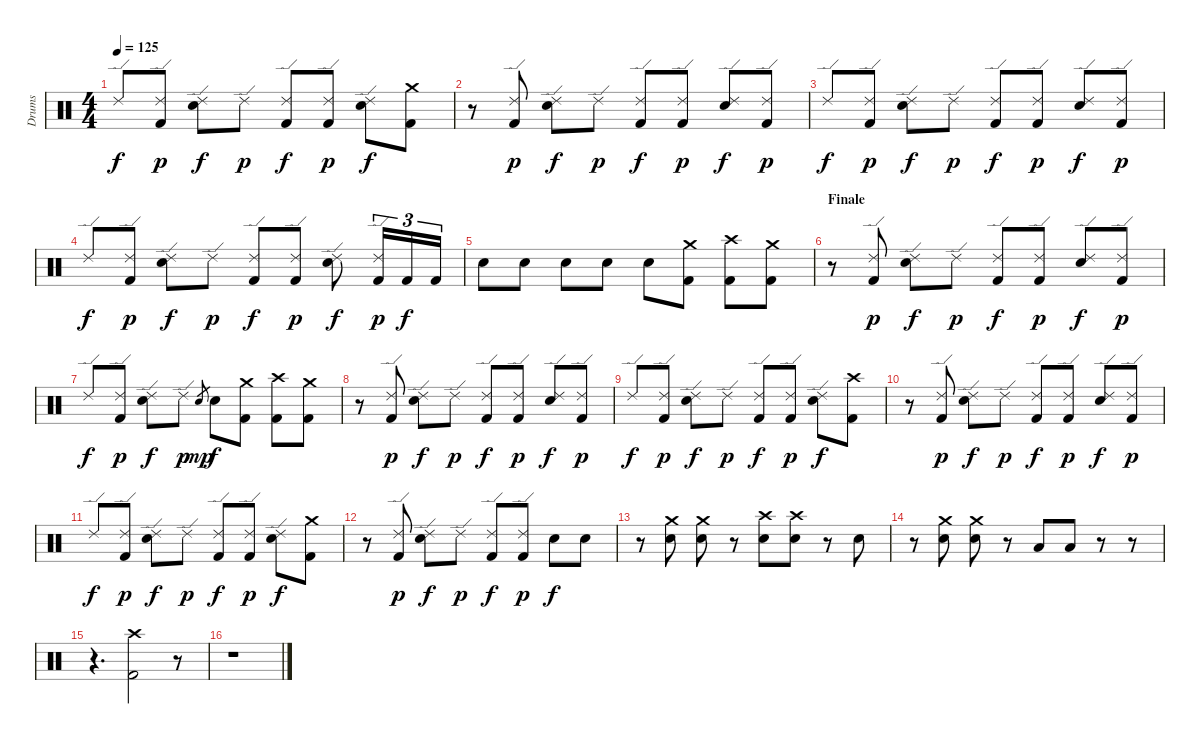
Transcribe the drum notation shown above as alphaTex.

\track ("Drums" "Drums") {instrument percussion}
\staff {score}
\articulation defaults
\ts (4 4)
\tempo 125
\clef neutral
\ks c "Ride (edge) 2".8{dy f}
("Ride (edge) 2" "Kick (hit) 2").8{dy p} ("Ride (edge) 2" "Snare (hit) 2").8{dy f} "Ride (edge) 2".8{dy p} ("Ride (edge) 2" "Kick (hit) 2").8{dy f} ("Ride (edge) 2" "Kick (hit) 2").8{dy p} ("Ride (edge) 2" "Snare (hit) 2").8{dy f} ("Crash medium (hit)" "Kick (hit) 2").8 |
r.8 ("Ride (edge) 2" "Kick (hit) 2").8{dy p} ("Ride (edge) 2" "Snare (hit) 2").8{dy f} "Ride (edge) 2".8{dy p} ("Ride (edge) 2" "Kick (hit) 2").8{dy f} ("Ride (edge) 2" "Kick (hit) 2").8{dy p} ("Ride (edge) 2" "Snare (hit) 2").8{dy f} ("Ride (edge) 2" "Kick (hit) 2").8{dy p} |
"Ride (edge) 2".8{dy f} ("Ride (edge) 2" "Kick (hit) 2").8{dy p} ("Ride (edge) 2" "Snare (hit) 2").8{dy f} "Ride (edge) 2".8{dy p} ("Ride (edge) 2" "Kick (hit) 2").8{dy f} ("Ride (edge) 2" "Kick (hit) 2").8{dy p} ("Ride (edge) 2" "Snare (hit) 2").8{dy f} ("Ride (edge) 2" "Kick (hit) 2").8{dy p} |
"Ride (edge) 2".8{dy f} ("Ride (edge) 2" "Kick (hit) 2").8{dy p} ("Ride (edge) 2" "Snare (hit) 2").8{dy f} "Ride (edge) 2".8{dy p} ("Ride (edge) 2" "Kick (hit) 2").8{dy f} ("Ride (edge) 2" "Kick (hit) 2").8{dy p} ("Ride (edge) 2" "Snare (hit) 2").8{dy f} ("Ride (edge) 2" "Kick (hit) 2").16{tu (3 2) dy p} "Kick (hit) 2".16{tu (3 2) dy f} "Kick (hit) 2".16{tu (3 2)} |
"Snare (hit) 2".8 "Snare (hit) 2".8 "Snare (hit) 2".8 "Snare (hit) 2".8 "Snare (hit) 2".8 ("Crash medium (hit)" "Kick (hit) 2").8 ("Crash high (hit)" "Kick (hit) 2").8 ("Crash medium (hit)" "Kick (hit) 2").8 |
\section ("" "Finale")
r.8 ("Ride (edge) 2" "Kick (hit) 2").8{dy p} ("Ride (edge) 2" "Snare (hit) 2").8{dy f} "Ride (edge) 2".8{dy p} ("Ride (edge) 2" "Kick (hit) 2").8{dy f} ("Ride (edge) 2" "Kick (hit) 2").8{dy p} ("Ride (edge) 2" "Snare (hit) 2").8{dy f} ("Ride (edge) 2" "Kick (hit) 2").8{dy p} |
"Ride (edge) 2".8{dy f} ("Ride (edge) 2" "Kick (hit) 2").8{dy p} ("Ride (edge) 2" "Snare (hit) 2").8{dy f} "Ride (edge) 2".8{dy p} "Snare (hit) 2".8{gr dy mp} "Snare (hit) 2".8{dy f} ("Crash medium (hit)" "Kick (hit) 2").8 ("Crash high (hit)" "Kick (hit) 2").8 ("Crash medium (hit)" "Kick (hit) 2").8 |
r.8 ("Ride (edge) 2" "Kick (hit) 2").8{dy p} ("Ride (edge) 2" "Snare (hit) 2").8{dy f} "Ride (edge) 2".8{dy p} ("Ride (edge) 2" "Kick (hit) 2").8{dy f} ("Ride (edge) 2" "Kick (hit) 2").8{dy p} ("Ride (edge) 2" "Snare (hit) 2").8{dy f} ("Ride (edge) 2" "Kick (hit) 2").8{dy p} |
"Ride (edge) 2".8{dy f} ("Ride (edge) 2" "Kick (hit) 2").8{dy p} ("Ride (edge) 2" "Snare (hit) 2").8{dy f} "Ride (edge) 2".8{dy p} ("Ride (edge) 2" "Kick (hit) 2").8{dy f} ("Ride (edge) 2" "Kick (hit) 2").8{dy p} ("Ride (edge) 2" "Snare (hit) 2").8{dy f} ("Crash high (hit)" "Kick (hit) 2").8 |
r.8 ("Ride (edge) 2" "Kick (hit) 2").8{dy p} ("Ride (edge) 2" "Snare (hit) 2").8{dy f} "Ride (edge) 2".8{dy p} ("Ride (edge) 2" "Kick (hit) 2").8{dy f} ("Ride (edge) 2" "Kick (hit) 2").8{dy p} ("Ride (edge) 2" "Snare (hit) 2").8{dy f} ("Ride (edge) 2" "Kick (hit) 2").8{dy p} |
"Ride (edge) 2".8{dy f} ("Ride (edge) 2" "Kick (hit) 2").8{dy p} ("Ride (edge) 2" "Snare (hit) 2").8{dy f} "Ride (edge) 2".8{dy p} ("Ride (edge) 2" "Kick (hit) 2").8{dy f} ("Ride (edge) 2" "Kick (hit) 2").8{dy p} ("Ride (edge) 2" "Snare (hit) 2").8{dy f} ("Crash medium (hit)" "Kick (hit) 2").8 |
r.8 ("Ride (edge) 2" "Kick (hit) 2").8{dy p} ("Ride (edge) 2" "Snare (hit) 2").8{dy f} "Ride (edge) 2".8{dy p} ("Ride (edge) 2" "Kick (hit) 2").8{dy f} ("Ride (edge) 2" "Kick (hit) 2").8{dy p} "Snare (hit) 2".8{dy f} "Snare (hit) 2".8 |
r.8 ("Crash medium (hit)" "Snare (hit) 2").8 ("Crash medium (hit)" "Snare (hit) 2").8 r.8 ("Crash high (hit)" "Snare (hit) 2").8 ("Crash high (hit)" "Snare (hit) 2").8 r.8 "Snare (hit) 2".8 |
r.8 ("Crash medium (hit)" "Snare (hit) 2").8 ("Crash medium (hit)" "Snare (hit) 2").8 r.8 "Low Tom (hit)".8 "Low Tom (hit)".8 r.8 r.8 |
r.4{d} ("Crash high (hit)" "Kick (hit) 2").2 r.8 |
r.1
